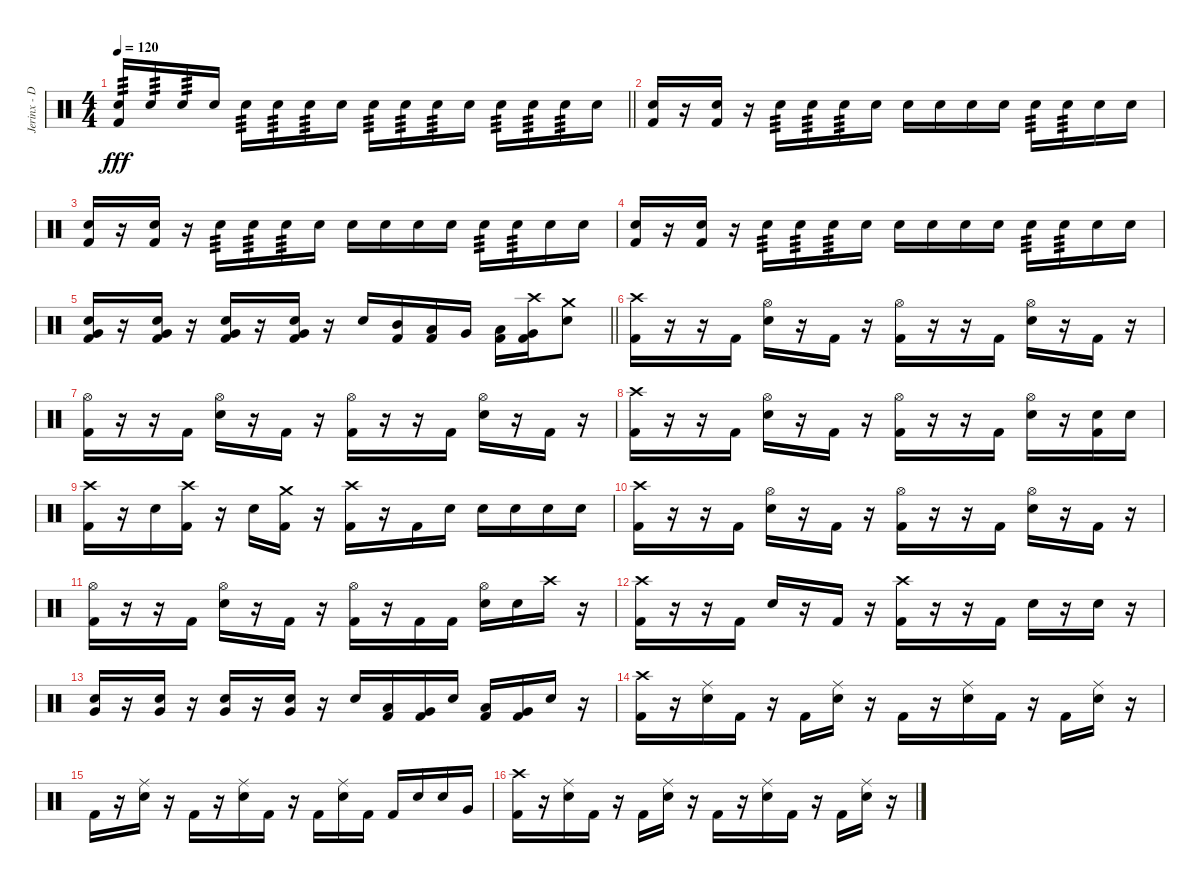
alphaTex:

\track ("Jerinx - Drum" "Jerinx - D") {instrument percussion}
\staff {score}
\articulation defaults
\ts (4 4)
\tempo 120
\clef neutral
\barLineRight lightlight
\ks c
("Snare (hit) 2" "Kick (hit) 2").16{tp 3 dy fff} "Snare (hit) 2".16{tp 3} "Snare (hit) 2".16{tp 3} "Snare (hit) 2".16 "Snare (hit) 2".16{tp 3} "Snare (hit) 2".16{tp 3} "Snare (hit) 2".16{tp 3} "Snare (hit) 2".16 "Snare (hit) 2".16{tp 3} "Snare (hit) 2".16{tp 3} "Snare (hit) 2".16{tp 3} "Snare (hit) 2".16 "Snare (hit) 2".16{tp 3} "Snare (hit) 2".16{tp 3} "Snare (hit) 2".16{tp 3} "Snare (hit) 2".16 |
("Snare (hit) 2" "Kick (hit) 2").16 r.16 ("Snare (hit) 2" "Kick (hit) 2").16 r.16 "Snare (hit) 2".16{tp 3} "Snare (hit) 2".16{tp 3} "Snare (hit) 2".16{tp 3} "Snare (hit) 2".16 "Snare (hit) 2".16 "Snare (hit) 2".16 "Snare (hit) 2".16 "Snare (hit) 2".16 "Snare (hit) 2".16{tp 3} "Snare (hit) 2".16{tp 3} "Snare (hit) 2".16 "Snare (hit) 2".16 |
("Snare (hit) 2" "Kick (hit) 2").16 r.16 ("Snare (hit) 2" "Kick (hit) 2").16 r.16 "Snare (hit) 2".16{tp 3} "Snare (hit) 2".16{tp 3} "Snare (hit) 2".16{tp 3} "Snare (hit) 2".16 "Snare (hit) 2".16 "Snare (hit) 2".16 "Snare (hit) 2".16 "Snare (hit) 2".16 "Snare (hit) 2".16{tp 3} "Snare (hit) 2".16{tp 3} "Snare (hit) 2".16 "Snare (hit) 2".16 |
("Snare (hit) 2" "Kick (hit) 2").16 r.16 ("Snare (hit) 2" "Kick (hit) 2").16 r.16 "Snare (hit) 2".16{tp 3} "Snare (hit) 2".16{tp 3} "Snare (hit) 2".16{tp 3} "Snare (hit) 2".16 "Snare (hit) 2".16 "Snare (hit) 2".16 "Snare (hit) 2".16 "Snare (hit) 2".16 "Snare (hit) 2".16{tp 3} "Snare (hit) 2".16{tp 3} "Snare (hit) 2".16 "Snare (hit) 2".16 |
\barLineRight lightlight
("Snare (hit) 2" "Kick (hit) 2" "Very Low Tom (hit)").16 r.16 ("Snare (hit) 2" "Kick (hit) 2" "Very Low Tom (hit)").16 r.16 ("Snare (hit) 2" "Kick (hit) 2" "Very Low Tom (hit)").16 r.16 ("Snare (hit) 2" "Kick (hit) 2" "Very Low Tom (hit)").16 r.16 "Snare (hit) 2".16 ("Mid Tom (hit)" "Kick (hit) 2").16 ("Low Tom (hit)" "Kick (hit) 2").16 "Very Low Tom (hit)".16 ("Low Tom (hit)" "Kick (hit) 2").16 ("Very Low Tom (hit)" "Kick (hit) 2" "Crash high (hit)").16 ("Snare (hit) 2" "Crash medium (hit)").8 |
("Kick (hit) 2" "Crash high (hit)").16 r.16 r.16 "Kick (hit) 2".16 ("Hi-Hat (open)" "Snare (hit) 2").16 r.16 "Kick (hit) 2".16 r.16 ("Hi-Hat (open)" "Kick (hit) 2").16 r.16 r.16 "Kick (hit) 2".16 ("Hi-Hat (open)" "Snare (hit) 2").16 r.16 "Kick (hit) 2".16 r.16 |
("Hi-Hat (open)" "Kick (hit) 2").16 r.16 r.16 "Kick (hit) 2".16 ("Hi-Hat (open)" "Snare (hit) 2").16 r.16 "Kick (hit) 2".16 r.16 ("Hi-Hat (open)" "Kick (hit) 2").16 r.16 r.16 "Kick (hit) 2".16 ("Hi-Hat (open)" "Snare (hit) 2").16 r.16 "Kick (hit) 2".16 r.16 |
("Kick (hit) 2" "Crash high (hit)").16 r.16 r.16 "Kick (hit) 2".16 ("Hi-Hat (open)" "Snare (hit) 2").16 r.16 "Kick (hit) 2".16 r.16 ("Hi-Hat (open)" "Kick (hit) 2").16 r.16 r.16 "Kick (hit) 2".16 ("Hi-Hat (open)" "Snare (hit) 2").16 r.16 ("Snare (hit) 2" "Kick (hit) 2").16 "Snare (hit) 2".16 |
("Kick (hit) 2" "Crash high (hit)").16 r.16 "Snare (hit) 2".16 ("Kick (hit) 2" "Crash high (hit)").16 r.16 "Snare (hit) 2".16 ("Kick (hit) 2" "Crash medium (hit)").16 r.16 ("Kick (hit) 2" "Crash high (hit)").16 r.16 "Kick (hit) 2".16 "Snare (hit) 2".16 "Snare (hit) 2".16 "Snare (hit) 2".16 "Snare (hit) 2".16 "Snare (hit) 2".16 |
("Kick (hit) 2" "Crash high (hit)").16 r.16 r.16 "Kick (hit) 2".16 ("Hi-Hat (open)" "Snare (hit) 2").16 r.16 "Kick (hit) 2".16 r.16 ("Hi-Hat (open)" "Kick (hit) 2").16 r.16 r.16 "Kick (hit) 2".16 ("Hi-Hat (open)" "Snare (hit) 2").16 r.16 "Kick (hit) 2".16 r.16 |
("Hi-Hat (open)" "Kick (hit) 2").16 r.16 r.16 "Kick (hit) 2".16 ("Hi-Hat (open)" "Snare (hit) 2").16 r.16 "Kick (hit) 2".16 r.16 ("Hi-Hat (open)" "Kick (hit) 2").16 r.16 "Kick (hit) 2".16 "Kick (hit) 2".16 ("Hi-Hat (open)" "Snare (hit) 2").16 "Snare (hit) 2".16 "Crash high (hit)".16 r.16 |
("Kick (hit) 2" "Crash high (hit)").16 r.16 r.16 "Kick (hit) 2".16 "Snare (hit) 2".16 r.16 "Kick (hit) 2".16 r.16 ("Kick (hit) 2" "Crash high (hit)").16 r.16 r.16 "Kick (hit) 2".16 "Snare (hit) 2".16 r.16 "Snare (hit) 2".16 r.16 |
("Snare (hit) 2" "Very Low Tom (hit)").16 r.16 ("Snare (hit) 2" "Very Low Tom (hit)").16 r.16 ("Snare (hit) 2" "Very Low Tom (hit)").16 r.16 ("Snare (hit) 2" "Very Low Tom (hit)").16 r.16 "Snare (hit) 2".16 ("Low Tom (hit)" "Kick (hit) 2").16 ("Very Low Tom (hit)" "Kick (hit) 2").16 "Snare (hit) 2".16 ("Low Tom (hit)" "Kick (hit) 2").16 ("Very Low Tom (hit)" "Kick (hit) 2").16 "Snare (hit) 2".16 r.16 |
("Kick (hit) 2" "Crash high (hit)").16 r.16 ("Snare (hit) 2" "Ride (middle)").16 "Kick (hit) 2".16 r.16 "Kick (hit) 2".16 ("Snare (hit) 2" "Ride (middle)").16 r.16 "Kick (hit) 2".16 r.16 ("Snare (hit) 2" "Ride (middle)").16 "Kick (hit) 2".16 r.16 "Kick (hit) 2".16 ("Snare (hit) 2" "Ride (middle)").16 r.16 |
"Kick (hit) 2".16 r.16 ("Snare (hit) 2" "Ride (middle)").16 r.16 "Kick (hit) 2".16 r.16 ("Snare (hit) 2" "Ride (middle)").16 "Kick (hit) 2".16 r.16 "Kick (hit) 2".16 ("Snare (hit) 2" "Ride (middle)").16 "Kick (hit) 2".16 "Kick (hit) 2".16 "Snare (hit) 2".16 "Snare (hit) 2".16 "Very Low Tom (hit)".16 |
("Kick (hit) 2" "Crash high (hit)").16 r.16 ("Snare (hit) 2" "Ride (middle)").16 "Kick (hit) 2".16 r.16 "Kick (hit) 2".16 ("Snare (hit) 2" "Ride (middle)").16 r.16 "Kick (hit) 2".16 r.16 ("Snare (hit) 2" "Ride (middle)").16 "Kick (hit) 2".16 r.16 "Kick (hit) 2".16 ("Snare (hit) 2" "Ride (middle)").16 r.16
